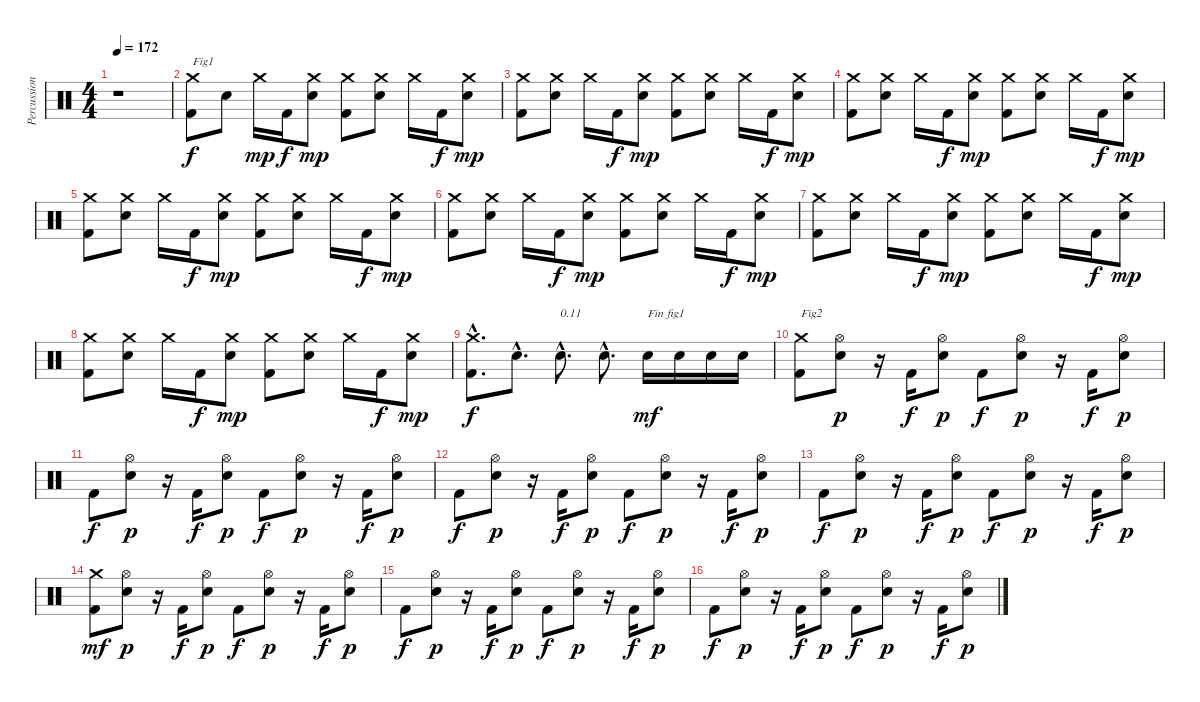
\track ("Percussions" "Percussion") {instrument percussion}
\staff {score}
\articulation defaults
\ts (4 4)
\tempo 172
\clef neutral
\ks c
r.1{dy f} |
("Kick (hit) 2" "Crash medium (hit)").8{txt "Fig1"} "Electric Snare (hit)".8 "Crash medium (hit)".16{dy mp} "Kick (hit) 2".16{dy f} ("Electric Snare (hit)" "Crash medium (hit)").8{dy mp} ("Kick (hit) 2" "Crash medium (hit)").8 ("Electric Snare (hit)" "Crash medium (hit)").8 "Crash medium (hit)".16 "Kick (hit) 2".16{dy f} ("Electric Snare (hit)" "Crash medium (hit)").8{dy mp} |
("Kick (hit) 2" "Crash medium (hit)").8 ("Electric Snare (hit)" "Crash medium (hit)").8 "Crash medium (hit)".16 "Kick (hit) 2".16{dy f} ("Electric Snare (hit)" "Crash medium (hit)").8{dy mp} ("Kick (hit) 2" "Crash medium (hit)").8 ("Electric Snare (hit)" "Crash medium (hit)").8 "Crash medium (hit)".16 "Kick (hit) 2".16{dy f} ("Electric Snare (hit)" "Crash medium (hit)").8{dy mp} |
("Kick (hit) 2" "Crash medium (hit)").8 ("Electric Snare (hit)" "Crash medium (hit)").8 "Crash medium (hit)".16 "Kick (hit) 2".16{dy f} ("Electric Snare (hit)" "Crash medium (hit)").8{dy mp} ("Kick (hit) 2" "Crash medium (hit)").8 ("Electric Snare (hit)" "Crash medium (hit)").8 "Crash medium (hit)".16 "Kick (hit) 2".16{dy f} ("Electric Snare (hit)" "Crash medium (hit)").8{dy mp} |
("Kick (hit) 2" "Crash medium (hit)").8 ("Electric Snare (hit)" "Crash medium (hit)").8 "Crash medium (hit)".16 "Kick (hit) 2".16{dy f} ("Electric Snare (hit)" "Crash medium (hit)").8{dy mp} ("Kick (hit) 2" "Crash medium (hit)").8 ("Electric Snare (hit)" "Crash medium (hit)").8 "Crash medium (hit)".16 "Kick (hit) 2".16{dy f} ("Electric Snare (hit)" "Crash medium (hit)").8{dy mp} |
("Kick (hit) 2" "Crash medium (hit)").8 ("Electric Snare (hit)" "Crash medium (hit)").8 "Crash medium (hit)".16 "Kick (hit) 2".16{dy f} ("Electric Snare (hit)" "Crash medium (hit)").8{dy mp} ("Kick (hit) 2" "Crash medium (hit)").8 ("Electric Snare (hit)" "Crash medium (hit)").8 "Crash medium (hit)".16 "Kick (hit) 2".16{dy f} ("Electric Snare (hit)" "Crash medium (hit)").8{dy mp} |
("Kick (hit) 2" "Crash medium (hit)").8 ("Electric Snare (hit)" "Crash medium (hit)").8 "Crash medium (hit)".16 "Kick (hit) 2".16{dy f} ("Electric Snare (hit)" "Crash medium (hit)").8{dy mp} ("Kick (hit) 2" "Crash medium (hit)").8 ("Electric Snare (hit)" "Crash medium (hit)").8 "Crash medium (hit)".16 "Kick (hit) 2".16{dy f} ("Electric Snare (hit)" "Crash medium (hit)").8{dy mp} |
("Kick (hit) 2" "Crash medium (hit)").8 ("Electric Snare (hit)" "Crash medium (hit)").8 "Crash medium (hit)".16 "Kick (hit) 2".16{dy f} ("Electric Snare (hit)" "Crash medium (hit)").8{dy mp} ("Kick (hit) 2" "Crash medium (hit)").8 ("Electric Snare (hit)" "Crash medium (hit)").8 "Crash medium (hit)".16 "Kick (hit) 2".16{dy f} ("Electric Snare (hit)" "Crash medium (hit)").8{dy mp} |
("Kick (hit) 2"{hac} "Crash medium (hit)"{hac}).8{d dy f} "Electric Snare (hit)"{hac}.8{d} "Electric Snare (hit)"{hac}.8{d txt "0.11"} "Electric Snare (hit)"{hac}.8{d} "Electric Snare (hit)".16{txt "Fin fig1" dy mf} "Electric Snare (hit)".16 "Electric Snare (hit)".16 "Electric Snare (hit)".16 |
("Kick (hit) 2" "Crash medium (hit)").8{txt "Fig2"} ("Electric Snare (hit)" "Hi-Hat (open)").8{dy p} r.16 "Kick (hit) 2".16{dy f} ("Electric Snare (hit)" "Hi-Hat (open)").8{dy p} "Kick (hit) 2".8{dy f} ("Electric Snare (hit)" "Hi-Hat (open)").8{dy p} r.16 "Kick (hit) 2".16{dy f} ("Electric Snare (hit)" "Hi-Hat (open)").8{dy p} |
"Kick (hit) 2".8{dy f} ("Electric Snare (hit)" "Hi-Hat (open)").8{dy p} r.16 "Kick (hit) 2".16{dy f} ("Electric Snare (hit)" "Hi-Hat (open)").8{dy p} "Kick (hit) 2".8{dy f} ("Electric Snare (hit)" "Hi-Hat (open)").8{dy p} r.16 "Kick (hit) 2".16{dy f} ("Electric Snare (hit)" "Hi-Hat (open)").8{dy p} |
"Kick (hit) 2".8{dy f} ("Electric Snare (hit)" "Hi-Hat (open)").8{dy p} r.16 "Kick (hit) 2".16{dy f} ("Electric Snare (hit)" "Hi-Hat (open)").8{dy p} "Kick (hit) 2".8{dy f} ("Electric Snare (hit)" "Hi-Hat (open)").8{dy p} r.16 "Kick (hit) 2".16{dy f} ("Electric Snare (hit)" "Hi-Hat (open)").8{dy p} |
"Kick (hit) 2".8{dy f} ("Electric Snare (hit)" "Hi-Hat (open)").8{dy p} r.16 "Kick (hit) 2".16{dy f} ("Electric Snare (hit)" "Hi-Hat (open)").8{dy p} "Kick (hit) 2".8{dy f} ("Electric Snare (hit)" "Hi-Hat (open)").8{dy p} r.16 "Kick (hit) 2".16{dy f} ("Electric Snare (hit)" "Hi-Hat (open)").8{dy p} |
("Kick (hit) 2" "Crash medium (hit)").8{dy mf} ("Electric Snare (hit)" "Hi-Hat (open)").8{dy p} r.16 "Kick (hit) 2".16{dy f} ("Electric Snare (hit)" "Hi-Hat (open)").8{dy p} "Kick (hit) 2".8{dy f} ("Electric Snare (hit)" "Hi-Hat (open)").8{dy p} r.16 "Kick (hit) 2".16{dy f} ("Electric Snare (hit)" "Hi-Hat (open)").8{dy p} |
"Kick (hit) 2".8{dy f} ("Electric Snare (hit)" "Hi-Hat (open)").8{dy p} r.16 "Kick (hit) 2".16{dy f} ("Electric Snare (hit)" "Hi-Hat (open)").8{dy p} "Kick (hit) 2".8{dy f} ("Electric Snare (hit)" "Hi-Hat (open)").8{dy p} r.16 "Kick (hit) 2".16{dy f} ("Electric Snare (hit)" "Hi-Hat (open)").8{dy p} |
"Kick (hit) 2".8{dy f} ("Electric Snare (hit)" "Hi-Hat (open)").8{dy p} r.16 "Kick (hit) 2".16{dy f} ("Electric Snare (hit)" "Hi-Hat (open)").8{dy p} "Kick (hit) 2".8{dy f} ("Electric Snare (hit)" "Hi-Hat (open)").8{dy p} r.16 "Kick (hit) 2".16{dy f} ("Electric Snare (hit)" "Hi-Hat (open)").8{dy p}
